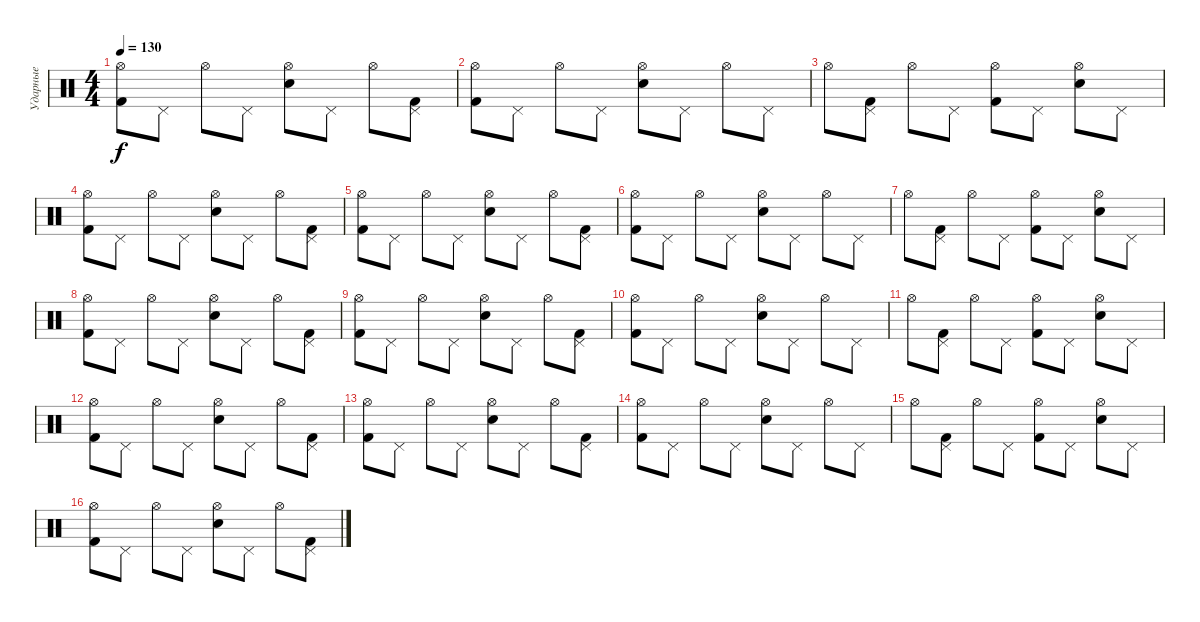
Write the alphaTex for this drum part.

\track ("Ударные" "Ударные") {instrument percussion}
\staff {score}
\articulation defaults
\ts (4 4)
\tempo 130
\clef neutral
\ks c
("Kick (hit) 2" "Hi-Hat (open)").8{dy f} "Pedal Hi-Hat (hit)".8 "Hi-Hat (open)".8 "Pedal Hi-Hat (hit)".8 ("Snare (hit) 2" "Hi-Hat (open)").8 "Pedal Hi-Hat (hit)".8 "Hi-Hat (open)".8 ("Kick (hit) 2" "Pedal Hi-Hat (hit)").8 |
("Kick (hit) 2" "Hi-Hat (open)").8 "Pedal Hi-Hat (hit)".8 "Hi-Hat (open)".8 "Pedal Hi-Hat (hit)".8 ("Snare (hit) 2" "Hi-Hat (open)").8 "Pedal Hi-Hat (hit)".8 "Hi-Hat (open)".8 "Pedal Hi-Hat (hit)".8 |
"Hi-Hat (open)".8 ("Kick (hit) 2" "Pedal Hi-Hat (hit)").8 "Hi-Hat (open)".8 "Pedal Hi-Hat (hit)".8 ("Kick (hit) 2" "Hi-Hat (open)").8 "Pedal Hi-Hat (hit)".8 ("Snare (hit) 2" "Hi-Hat (open)").8 "Pedal Hi-Hat (hit)".8 |
("Kick (hit) 2" "Hi-Hat (open)").8 "Pedal Hi-Hat (hit)".8 "Hi-Hat (open)".8 "Pedal Hi-Hat (hit)".8 ("Snare (hit) 2" "Hi-Hat (open)").8 "Pedal Hi-Hat (hit)".8 "Hi-Hat (open)".8 ("Kick (hit) 2" "Pedal Hi-Hat (hit)").8 |
("Kick (hit) 2" "Hi-Hat (open)").8 "Pedal Hi-Hat (hit)".8 "Hi-Hat (open)".8 "Pedal Hi-Hat (hit)".8 ("Snare (hit) 2" "Hi-Hat (open)").8 "Pedal Hi-Hat (hit)".8 "Hi-Hat (open)".8 ("Kick (hit) 2" "Pedal Hi-Hat (hit)").8 |
("Kick (hit) 2" "Hi-Hat (open)").8 "Pedal Hi-Hat (hit)".8 "Hi-Hat (open)".8 "Pedal Hi-Hat (hit)".8 ("Snare (hit) 2" "Hi-Hat (open)").8 "Pedal Hi-Hat (hit)".8 "Hi-Hat (open)".8 "Pedal Hi-Hat (hit)".8 |
"Hi-Hat (open)".8 ("Kick (hit) 2" "Pedal Hi-Hat (hit)").8 "Hi-Hat (open)".8 "Pedal Hi-Hat (hit)".8 ("Kick (hit) 2" "Hi-Hat (open)").8 "Pedal Hi-Hat (hit)".8 ("Snare (hit) 2" "Hi-Hat (open)").8 "Pedal Hi-Hat (hit)".8 |
("Kick (hit) 2" "Hi-Hat (open)").8 "Pedal Hi-Hat (hit)".8 "Hi-Hat (open)".8 "Pedal Hi-Hat (hit)".8 ("Snare (hit) 2" "Hi-Hat (open)").8 "Pedal Hi-Hat (hit)".8 "Hi-Hat (open)".8 ("Kick (hit) 2" "Pedal Hi-Hat (hit)").8 |
("Kick (hit) 2" "Hi-Hat (open)").8 "Pedal Hi-Hat (hit)".8 "Hi-Hat (open)".8 "Pedal Hi-Hat (hit)".8 ("Snare (hit) 2" "Hi-Hat (open)").8 "Pedal Hi-Hat (hit)".8 "Hi-Hat (open)".8 ("Kick (hit) 2" "Pedal Hi-Hat (hit)").8 |
("Kick (hit) 2" "Hi-Hat (open)").8 "Pedal Hi-Hat (hit)".8 "Hi-Hat (open)".8 "Pedal Hi-Hat (hit)".8 ("Snare (hit) 2" "Hi-Hat (open)").8 "Pedal Hi-Hat (hit)".8 "Hi-Hat (open)".8 "Pedal Hi-Hat (hit)".8 |
"Hi-Hat (open)".8 ("Kick (hit) 2" "Pedal Hi-Hat (hit)").8 "Hi-Hat (open)".8 "Pedal Hi-Hat (hit)".8 ("Kick (hit) 2" "Hi-Hat (open)").8 "Pedal Hi-Hat (hit)".8 ("Snare (hit) 2" "Hi-Hat (open)").8 "Pedal Hi-Hat (hit)".8 |
("Kick (hit) 2" "Hi-Hat (open)").8 "Pedal Hi-Hat (hit)".8 "Hi-Hat (open)".8 "Pedal Hi-Hat (hit)".8 ("Snare (hit) 2" "Hi-Hat (open)").8 "Pedal Hi-Hat (hit)".8 "Hi-Hat (open)".8 ("Kick (hit) 2" "Pedal Hi-Hat (hit)").8 |
("Kick (hit) 2" "Hi-Hat (open)").8 "Pedal Hi-Hat (hit)".8 "Hi-Hat (open)".8 "Pedal Hi-Hat (hit)".8 ("Snare (hit) 2" "Hi-Hat (open)").8 "Pedal Hi-Hat (hit)".8 "Hi-Hat (open)".8 ("Kick (hit) 2" "Pedal Hi-Hat (hit)").8 |
("Kick (hit) 2" "Hi-Hat (open)").8 "Pedal Hi-Hat (hit)".8 "Hi-Hat (open)".8 "Pedal Hi-Hat (hit)".8 ("Snare (hit) 2" "Hi-Hat (open)").8 "Pedal Hi-Hat (hit)".8 "Hi-Hat (open)".8 "Pedal Hi-Hat (hit)".8 |
"Hi-Hat (open)".8 ("Kick (hit) 2" "Pedal Hi-Hat (hit)").8 "Hi-Hat (open)".8 "Pedal Hi-Hat (hit)".8 ("Kick (hit) 2" "Hi-Hat (open)").8 "Pedal Hi-Hat (hit)".8 ("Snare (hit) 2" "Hi-Hat (open)").8 "Pedal Hi-Hat (hit)".8 |
("Kick (hit) 2" "Hi-Hat (open)").8 "Pedal Hi-Hat (hit)".8 "Hi-Hat (open)".8 "Pedal Hi-Hat (hit)".8 ("Snare (hit) 2" "Hi-Hat (open)").8 "Pedal Hi-Hat (hit)".8 "Hi-Hat (open)".8 ("Kick (hit) 2" "Pedal Hi-Hat (hit)").8
